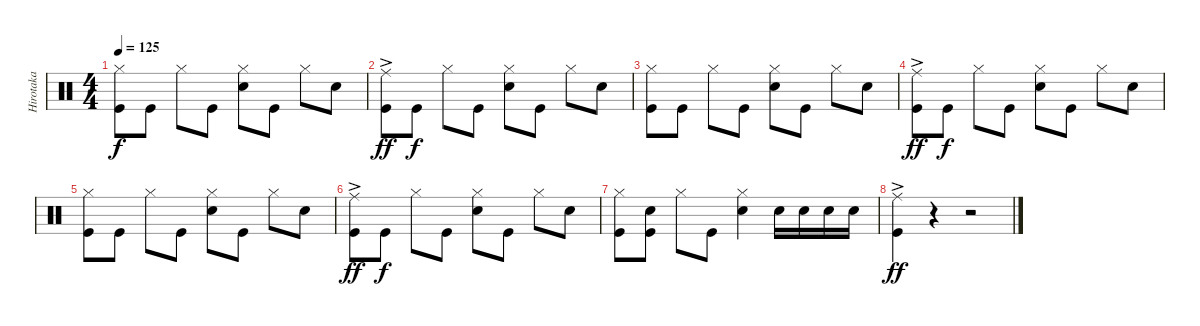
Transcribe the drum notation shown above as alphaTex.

\track ("Hirotaka" "Hirotaka") {instrument percussion}
\staff {score}
\articulation defaults
\ts (4 4)
\tempo 125
\clef neutral
\ks c
("Hi-Hat (closed)" "Kick (hit)").8{dy f} "Kick (hit)".8 "Hi-Hat (closed)".8 "Kick (hit)".8 ("Hi-Hat (closed)" "Snare (hit) 2").8 "Kick (hit)".8 "Hi-Hat (closed)".8 "Snare (hit) 2".8 |
("Ride (middle)"{ac} "Kick (hit)").8{dy ff} "Kick (hit)".8{dy f} "Hi-Hat (closed)".8 "Kick (hit)".8 ("Hi-Hat (closed)" "Snare (hit) 2").8 "Kick (hit)".8 "Hi-Hat (closed)".8 "Snare (hit) 2".8 |
("Hi-Hat (closed)" "Kick (hit)").8 "Kick (hit)".8 "Hi-Hat (closed)".8 "Kick (hit)".8 ("Hi-Hat (closed)" "Snare (hit) 2").8 "Kick (hit)".8 "Hi-Hat (closed)".8 "Snare (hit) 2".8 |
("Ride (middle)"{ac} "Kick (hit)").8{dy ff} "Kick (hit)".8{dy f} "Hi-Hat (closed)".8 "Kick (hit)".8 ("Hi-Hat (closed)" "Snare (hit) 2").8 "Kick (hit)".8 "Hi-Hat (closed)".8 "Snare (hit) 2".8 |
("Hi-Hat (closed)" "Kick (hit)").8 "Kick (hit)".8 "Hi-Hat (closed)".8 "Kick (hit)".8 ("Hi-Hat (closed)" "Snare (hit) 2").8 "Kick (hit)".8 "Hi-Hat (closed)".8 "Snare (hit) 2".8 |
("Ride (middle)"{ac} "Kick (hit)").8{dy ff} "Kick (hit)".8{dy f} "Hi-Hat (closed)".8 "Kick (hit)".8 ("Hi-Hat (closed)" "Snare (hit) 2").8 "Kick (hit)".8 "Hi-Hat (closed)".8 "Snare (hit) 2".8 |
("Hi-Hat (closed)" "Kick (hit)").8 ("Snare (hit) 2" "Kick (hit)").8 "Hi-Hat (closed)".8 "Kick (hit)".8 ("Hi-Hat (closed)" "Snare (hit) 2").4 "Snare (hit) 2".16 "Snare (hit) 2".16 "Snare (hit) 2".16 "Snare (hit) 2".16 |
("Ride (middle)"{ac} "Kick (hit)").4{dy ff} r.4 r.2
